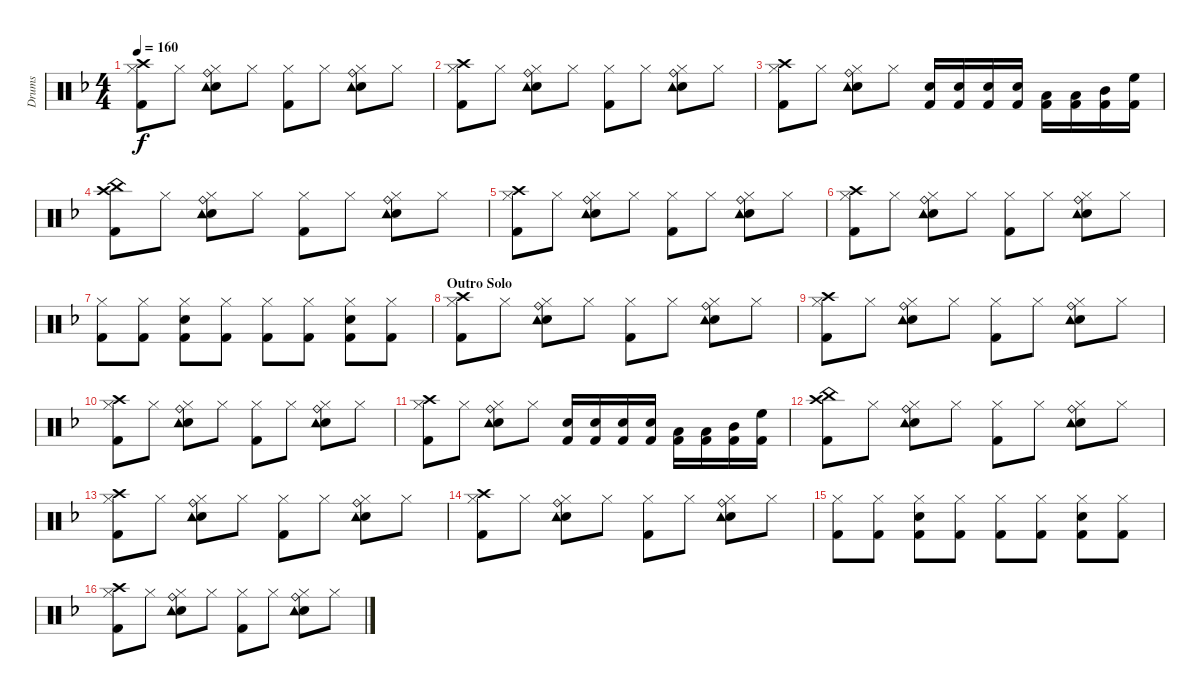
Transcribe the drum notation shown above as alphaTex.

\track ("Drums" "Drums") {instrument percussion}
\staff {score}
\articulation defaults
\ts (4 4)
\tempo 160
\clef neutral
\ks dminor
("Hi-Hat (closed)" "Crash high (hit)" "Kick (hit) 2").8{dy f} "Hi-Hat (closed)".8 ("Hi-Hat (closed)" "Electric Snare (hit)" "Tambourine (hit)" "Ride (bell)").8 "Hi-Hat (closed)".8 ("Hi-Hat (closed)" "Kick (hit) 2").8 "Hi-Hat (closed)".8 ("Hi-Hat (closed)" "Electric Snare (hit)" "Tambourine (hit)" "Ride (bell)").8 "Hi-Hat (closed)".8 |
("Hi-Hat (closed)" "Crash high (hit)" "Kick (hit) 2").8 "Hi-Hat (closed)".8 ("Hi-Hat (closed)" "Electric Snare (hit)" "Tambourine (hit)" "Ride (bell)").8 "Hi-Hat (closed)".8 ("Hi-Hat (closed)" "Kick (hit) 2").8 "Hi-Hat (closed)".8 ("Hi-Hat (closed)" "Electric Snare (hit)" "Tambourine (hit)" "Ride (bell)").8 "Hi-Hat (closed)".8 |
("Hi-Hat (closed)" "Crash high (hit)" "Kick (hit) 2").8 "Hi-Hat (closed)".8 ("Hi-Hat (closed)" "Electric Snare (hit)" "Tambourine (hit)" "Ride (bell)").8 "Hi-Hat (closed)".8 ("Snare (hit) 2" "Kick (hit) 2").16 ("Snare (hit) 2" "Kick (hit) 2").16 ("Snare (hit) 2" "Kick (hit) 2").16 ("Snare (hit) 2" "Kick (hit) 2").16 ("Low Floor Tom (hit)" "Kick (hit) 2").16 ("Low Tom (hit)" "Kick (hit) 2").16 ("Mid Tom (hit)" "Kick (hit) 2").16 ("High Floor Tom (hit)" "Kick (hit) 2").16 |
("China (hit)" "Crash high (hit)" "Kick (hit) 2").8 "Hi-Hat (closed)".8 ("Hi-Hat (closed)" "Electric Snare (hit)" "Tambourine (hit)" "Ride (bell)").8 "Hi-Hat (closed)".8 ("Hi-Hat (closed)" "Kick (hit) 2").8 "Hi-Hat (closed)".8 ("Hi-Hat (closed)" "Electric Snare (hit)" "Tambourine (hit)" "Ride (bell)").8 "Hi-Hat (closed)".8 |
("Hi-Hat (closed)" "Crash high (hit)" "Kick (hit) 2").8 "Hi-Hat (closed)".8 ("Hi-Hat (closed)" "Electric Snare (hit)" "Tambourine (hit)" "Ride (bell)").8 "Hi-Hat (closed)".8 ("Hi-Hat (closed)" "Kick (hit) 2").8 "Hi-Hat (closed)".8 ("Hi-Hat (closed)" "Electric Snare (hit)" "Tambourine (hit)" "Ride (bell)").8 "Hi-Hat (closed)".8 |
("Hi-Hat (closed)" "Crash high (hit)" "Kick (hit) 2").8 "Hi-Hat (closed)".8 ("Hi-Hat (closed)" "Electric Snare (hit)" "Tambourine (hit)" "Ride (bell)").8 "Hi-Hat (closed)".8 ("Hi-Hat (closed)" "Kick (hit) 2").8 "Hi-Hat (closed)".8 ("Hi-Hat (closed)" "Electric Snare (hit)" "Tambourine (hit)" "Ride (bell)").8 "Hi-Hat (closed)".8 |
("Hi-Hat (closed)" "Kick (hit) 2").8 ("Hi-Hat (closed)" "Kick (hit) 2").8 ("Hi-Hat (closed)" "Electric Snare (hit)" "Kick (hit) 2").8 ("Hi-Hat (closed)" "Kick (hit) 2").8 ("Hi-Hat (closed)" "Kick (hit) 2").8 ("Hi-Hat (closed)" "Kick (hit) 2").8 ("Hi-Hat (closed)" "Electric Snare (hit)" "Kick (hit) 2").8 ("Hi-Hat (closed)" "Kick (hit) 2").8 |
\section ("" "Outro Solo")
("Hi-Hat (closed)" "Crash high (hit)" "Kick (hit) 2").8 "Hi-Hat (closed)".8 ("Hi-Hat (closed)" "Electric Snare (hit)" "Tambourine (hit)" "Ride (bell)").8 "Hi-Hat (closed)".8 ("Hi-Hat (closed)" "Kick (hit) 2").8 "Hi-Hat (closed)".8 ("Hi-Hat (closed)" "Electric Snare (hit)" "Tambourine (hit)" "Ride (bell)").8 "Hi-Hat (closed)".8 |
("Hi-Hat (closed)" "Crash high (hit)" "Kick (hit) 2").8 "Hi-Hat (closed)".8 ("Hi-Hat (closed)" "Electric Snare (hit)" "Tambourine (hit)" "Ride (bell)").8 "Hi-Hat (closed)".8 ("Hi-Hat (closed)" "Kick (hit) 2").8 "Hi-Hat (closed)".8 ("Hi-Hat (closed)" "Electric Snare (hit)" "Tambourine (hit)" "Ride (bell)").8 "Hi-Hat (closed)".8 |
("Hi-Hat (closed)" "Crash high (hit)" "Kick (hit) 2").8 "Hi-Hat (closed)".8 ("Hi-Hat (closed)" "Electric Snare (hit)" "Tambourine (hit)" "Ride (bell)").8 "Hi-Hat (closed)".8 ("Hi-Hat (closed)" "Kick (hit) 2").8 "Hi-Hat (closed)".8 ("Hi-Hat (closed)" "Electric Snare (hit)" "Tambourine (hit)" "Ride (bell)").8 "Hi-Hat (closed)".8 |
("Hi-Hat (closed)" "Crash high (hit)" "Kick (hit) 2").8 "Hi-Hat (closed)".8 ("Hi-Hat (closed)" "Electric Snare (hit)" "Tambourine (hit)" "Ride (bell)").8 "Hi-Hat (closed)".8 ("Snare (hit) 2" "Kick (hit) 2").16 ("Snare (hit) 2" "Kick (hit) 2").16 ("Snare (hit) 2" "Kick (hit) 2").16 ("Snare (hit) 2" "Kick (hit) 2").16 ("Low Floor Tom (hit)" "Kick (hit) 2").16 ("Low Tom (hit)" "Kick (hit) 2").16 ("Mid Tom (hit)" "Kick (hit) 2").16 ("High Floor Tom (hit)" "Kick (hit) 2").16 |
("China (hit)" "Crash high (hit)" "Kick (hit) 2").8 "Hi-Hat (closed)".8 ("Hi-Hat (closed)" "Electric Snare (hit)" "Tambourine (hit)" "Ride (bell)").8 "Hi-Hat (closed)".8 ("Hi-Hat (closed)" "Kick (hit) 2").8 "Hi-Hat (closed)".8 ("Hi-Hat (closed)" "Electric Snare (hit)" "Tambourine (hit)" "Ride (bell)").8 "Hi-Hat (closed)".8 |
("Hi-Hat (closed)" "Crash high (hit)" "Kick (hit) 2").8 "Hi-Hat (closed)".8 ("Hi-Hat (closed)" "Electric Snare (hit)" "Tambourine (hit)" "Ride (bell)").8 "Hi-Hat (closed)".8 ("Hi-Hat (closed)" "Kick (hit) 2").8 "Hi-Hat (closed)".8 ("Hi-Hat (closed)" "Electric Snare (hit)" "Tambourine (hit)" "Ride (bell)").8 "Hi-Hat (closed)".8 |
("Hi-Hat (closed)" "Crash high (hit)" "Kick (hit) 2").8 "Hi-Hat (closed)".8 ("Hi-Hat (closed)" "Electric Snare (hit)" "Tambourine (hit)" "Ride (bell)").8 "Hi-Hat (closed)".8 ("Hi-Hat (closed)" "Kick (hit) 2").8 "Hi-Hat (closed)".8 ("Hi-Hat (closed)" "Electric Snare (hit)" "Tambourine (hit)" "Ride (bell)").8 "Hi-Hat (closed)".8 |
("Hi-Hat (closed)" "Kick (hit) 2").8 ("Hi-Hat (closed)" "Kick (hit) 2").8 ("Hi-Hat (closed)" "Electric Snare (hit)" "Kick (hit) 2").8 ("Hi-Hat (closed)" "Kick (hit) 2").8 ("Hi-Hat (closed)" "Kick (hit) 2").8 ("Hi-Hat (closed)" "Kick (hit) 2").8 ("Hi-Hat (closed)" "Electric Snare (hit)" "Kick (hit) 2").8 ("Hi-Hat (closed)" "Kick (hit) 2").8 |
("Hi-Hat (closed)" "Crash high (hit)" "Kick (hit) 2").8 "Hi-Hat (closed)".8 ("Hi-Hat (closed)" "Electric Snare (hit)" "Tambourine (hit)" "Ride (bell)").8 "Hi-Hat (closed)".8 ("Hi-Hat (closed)" "Kick (hit) 2").8 "Hi-Hat (closed)".8 ("Hi-Hat (closed)" "Electric Snare (hit)" "Tambourine (hit)" "Ride (bell)").8 "Hi-Hat (closed)".8
